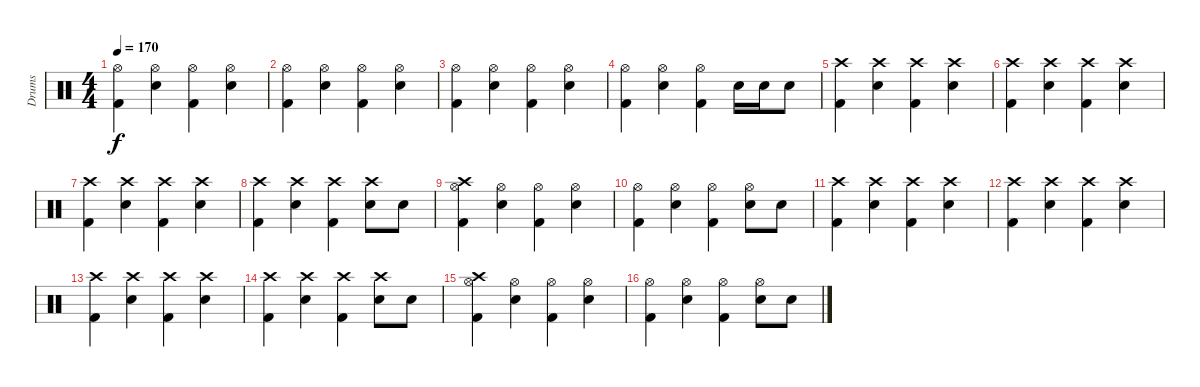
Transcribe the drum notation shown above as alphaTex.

\track ("Drums" "Drums") {instrument percussion}
\staff {score}
\articulation defaults
\ts (4 4)
\tempo 170
\clef neutral
\ks c
("Hi-Hat (open)" "Kick (hit) 2").4{dy f} ("Hi-Hat (open)" "Electric Snare (hit)").4 ("Hi-Hat (open)" "Kick (hit) 2").4 ("Hi-Hat (open)" "Electric Snare (hit)").4 |
("Hi-Hat (open)" "Kick (hit) 2").4 ("Hi-Hat (open)" "Electric Snare (hit)").4 ("Hi-Hat (open)" "Kick (hit) 2").4 ("Hi-Hat (open)" "Electric Snare (hit)").4 |
("Hi-Hat (open)" "Kick (hit) 2").4 ("Hi-Hat (open)" "Electric Snare (hit)").4 ("Hi-Hat (open)" "Kick (hit) 2").4 ("Hi-Hat (open)" "Electric Snare (hit)").4 |
("Hi-Hat (open)" "Kick (hit) 2").4 ("Hi-Hat (open)" "Electric Snare (hit)").4 ("Hi-Hat (open)" "Kick (hit) 2").4 "Electric Snare (hit)".16 "Electric Snare (hit)".16 "Electric Snare (hit)".8 |
("Crash high (hit)" "Kick (hit) 2").4 ("Crash high (hit)" "Electric Snare (hit)").4 ("Crash high (hit)" "Kick (hit) 2").4 ("Crash high (hit)" "Electric Snare (hit)").4 |
("Crash high (hit)" "Kick (hit) 2").4 ("Crash high (hit)" "Electric Snare (hit)").4 ("Crash high (hit)" "Kick (hit) 2").4 ("Crash high (hit)" "Electric Snare (hit)").4 |
("Crash high (hit)" "Kick (hit) 2").4 ("Crash high (hit)" "Electric Snare (hit)").4 ("Crash high (hit)" "Kick (hit) 2").4 ("Crash high (hit)" "Electric Snare (hit)").4 |
("Crash high (hit)" "Kick (hit) 2").4 ("Crash high (hit)" "Electric Snare (hit)").4 ("Crash high (hit)" "Kick (hit) 2").4 ("Crash high (hit)" "Electric Snare (hit)").8 "Electric Snare (hit)".8 |
("Crash high (hit)" "Hi-Hat (open)" "Kick (hit) 2").4 ("Hi-Hat (open)" "Electric Snare (hit)").4 ("Hi-Hat (open)" "Kick (hit) 2").4 ("Hi-Hat (open)" "Electric Snare (hit)").4 |
("Hi-Hat (open)" "Kick (hit) 2").4 ("Hi-Hat (open)" "Electric Snare (hit)").4 ("Hi-Hat (open)" "Kick (hit) 2").4 ("Hi-Hat (open)" "Electric Snare (hit)").8 "Electric Snare (hit)".8 |
("Crash high (hit)" "Kick (hit) 2").4 ("Crash high (hit)" "Electric Snare (hit)").4 ("Crash high (hit)" "Kick (hit) 2").4 ("Crash high (hit)" "Electric Snare (hit)").4 |
("Crash high (hit)" "Kick (hit) 2").4 ("Crash high (hit)" "Electric Snare (hit)").4 ("Crash high (hit)" "Kick (hit) 2").4 ("Crash high (hit)" "Electric Snare (hit)").4 |
("Crash high (hit)" "Kick (hit) 2").4 ("Crash high (hit)" "Electric Snare (hit)").4 ("Crash high (hit)" "Kick (hit) 2").4 ("Crash high (hit)" "Electric Snare (hit)").4 |
("Crash high (hit)" "Kick (hit) 2").4 ("Crash high (hit)" "Electric Snare (hit)").4 ("Crash high (hit)" "Kick (hit) 2").4 ("Crash high (hit)" "Electric Snare (hit)").8 "Electric Snare (hit)".8 |
("Crash high (hit)" "Hi-Hat (open)" "Kick (hit) 2").4 ("Hi-Hat (open)" "Electric Snare (hit)").4 ("Hi-Hat (open)" "Kick (hit) 2").4 ("Hi-Hat (open)" "Electric Snare (hit)").4 |
("Hi-Hat (open)" "Kick (hit) 2").4 ("Hi-Hat (open)" "Electric Snare (hit)").4 ("Hi-Hat (open)" "Kick (hit) 2").4 ("Hi-Hat (open)" "Electric Snare (hit)").8 "Electric Snare (hit)".8
